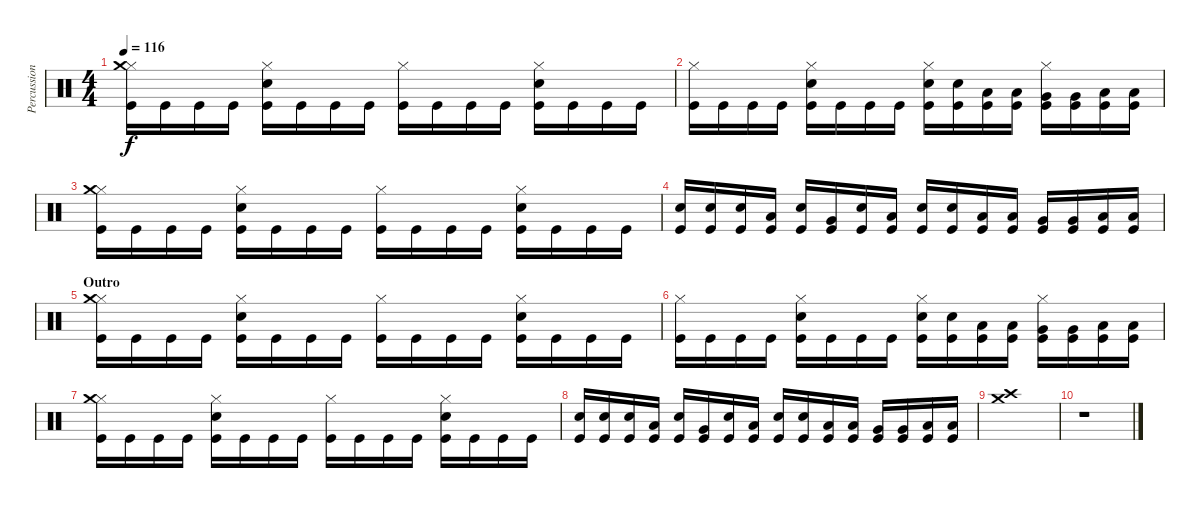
\track ("Percussion" "Percussion") {instrument percussion}
\staff {score}
\articulation defaults
\ts (4 4)
\tempo 116
\clef neutral
\ks c
("Hi-Hat (closed)" "Crash medium (hit)" "Kick (hit)").16{dy f} "Kick (hit)".16 "Kick (hit)".16 "Kick (hit)".16 ("Hi-Hat (closed)" "Snare (hit) 2" "Kick (hit)").16 "Kick (hit)".16 "Kick (hit)".16 "Kick (hit)".16 ("Hi-Hat (closed)" "Kick (hit)").16 "Kick (hit)".16 "Kick (hit)".16 "Kick (hit)".16 ("Hi-Hat (closed)" "Snare (hit) 2" "Kick (hit)").16 "Kick (hit)".16 "Kick (hit)".16 "Kick (hit)".16 |
("Hi-Hat (closed)" "Kick (hit)").16 "Kick (hit)".16 "Kick (hit)".16 "Kick (hit)".16 ("Hi-Hat (closed)" "Snare (hit) 2" "Kick (hit)").16 "Kick (hit)".16 "Kick (hit)".16 "Kick (hit)".16 ("Hi-Hat (closed)" "Snare (hit) 2" "Kick (hit)").16 ("Snare (hit) 2" "Kick (hit)").16 ("Low Tom (hit)" "Kick (hit)").16 ("Low Tom (hit)" "Kick (hit)").16 ("Hi-Hat (closed)" "Very Low Tom (hit)" "Kick (hit)").16 ("Very Low Tom (hit)" "Kick (hit)").16 ("Low Floor Tom (hit)" "Kick (hit)").16 ("Low Floor Tom (hit)" "Kick (hit)").16 |
("Hi-Hat (closed)" "Crash medium (hit)" "Kick (hit)").16 "Kick (hit)".16 "Kick (hit)".16 "Kick (hit)".16 ("Hi-Hat (closed)" "Snare (hit) 2" "Kick (hit)").16 "Kick (hit)".16 "Kick (hit)".16 "Kick (hit)".16 ("Hi-Hat (closed)" "Kick (hit)").16 "Kick (hit)".16 "Kick (hit)".16 "Kick (hit)".16 ("Hi-Hat (closed)" "Snare (hit) 2" "Kick (hit)").16 "Kick (hit)".16 "Kick (hit)".16 "Kick (hit)".16 |
("Snare (hit) 2" "Kick (hit)").16 ("Snare (hit) 2" "Kick (hit)").16 ("Snare (hit) 2" "Kick (hit)").16 ("Low Tom (hit)" "Kick (hit)").16 ("Snare (hit) 2" "Kick (hit)").16 ("Very Low Tom (hit)" "Kick (hit)").16 ("Snare (hit) 2" "Kick (hit)").16 ("Low Floor Tom (hit)" "Kick (hit)").16 ("Snare (hit) 2" "Kick (hit)").16 ("Snare (hit) 2" "Kick (hit)").16 ("Low Tom (hit)" "Kick (hit)").16 ("Low Tom (hit)" "Kick (hit)").16 ("Very Low Tom (hit)" "Kick (hit)").16 ("Very Low Tom (hit)" "Kick (hit)").16 ("Low Floor Tom (hit)" "Kick (hit)").16 ("Low Floor Tom (hit)" "Kick (hit)").16 |
\section ("" "Outro")
("Hi-Hat (closed)" "Crash medium (hit)" "Kick (hit)").16 "Kick (hit)".16 "Kick (hit)".16 "Kick (hit)".16 ("Hi-Hat (closed)" "Snare (hit) 2" "Kick (hit)").16 "Kick (hit)".16 "Kick (hit)".16 "Kick (hit)".16 ("Hi-Hat (closed)" "Kick (hit)").16 "Kick (hit)".16 "Kick (hit)".16 "Kick (hit)".16 ("Hi-Hat (closed)" "Snare (hit) 2" "Kick (hit)").16 "Kick (hit)".16 "Kick (hit)".16 "Kick (hit)".16 |
("Hi-Hat (closed)" "Kick (hit)").16 "Kick (hit)".16 "Kick (hit)".16 "Kick (hit)".16 ("Hi-Hat (closed)" "Snare (hit) 2" "Kick (hit)").16 "Kick (hit)".16 "Kick (hit)".16 "Kick (hit)".16 ("Hi-Hat (closed)" "Snare (hit) 2" "Kick (hit)").16 ("Snare (hit) 2" "Kick (hit)").16 ("Low Tom (hit)" "Kick (hit)").16 ("Low Tom (hit)" "Kick (hit)").16 ("Hi-Hat (closed)" "Very Low Tom (hit)" "Kick (hit)").16 ("Very Low Tom (hit)" "Kick (hit)").16 ("Low Floor Tom (hit)" "Kick (hit)").16 ("Low Floor Tom (hit)" "Kick (hit)").16 |
("Hi-Hat (closed)" "Crash medium (hit)" "Kick (hit)").16 "Kick (hit)".16 "Kick (hit)".16 "Kick (hit)".16 ("Hi-Hat (closed)" "Snare (hit) 2" "Kick (hit)").16 "Kick (hit)".16 "Kick (hit)".16 "Kick (hit)".16 ("Hi-Hat (closed)" "Kick (hit)").16 "Kick (hit)".16 "Kick (hit)".16 "Kick (hit)".16 ("Hi-Hat (closed)" "Snare (hit) 2" "Kick (hit)").16 "Kick (hit)".16 "Kick (hit)".16 "Kick (hit)".16 |
("Snare (hit) 2" "Kick (hit)").16 ("Snare (hit) 2" "Kick (hit)").16 ("Snare (hit) 2" "Kick (hit)").16 ("Low Tom (hit)" "Kick (hit)").16 ("Snare (hit) 2" "Kick (hit)").16 ("Very Low Tom (hit)" "Kick (hit)").16 ("Snare (hit) 2" "Kick (hit)").16 ("Low Floor Tom (hit)" "Kick (hit)").16 ("Snare (hit) 2" "Kick (hit)").16 ("Snare (hit) 2" "Kick (hit)").16 ("Low Tom (hit)" "Kick (hit)").16 ("Low Tom (hit)" "Kick (hit)").16 ("Very Low Tom (hit)" "Kick (hit)").16 ("Very Low Tom (hit)" "Kick (hit)").16 ("Low Floor Tom (hit)" "Kick (hit)").16 ("Low Floor Tom (hit)" "Kick (hit)").16 |
("Crash high (hit)" "Crash medium (hit)").1 |
r.1
